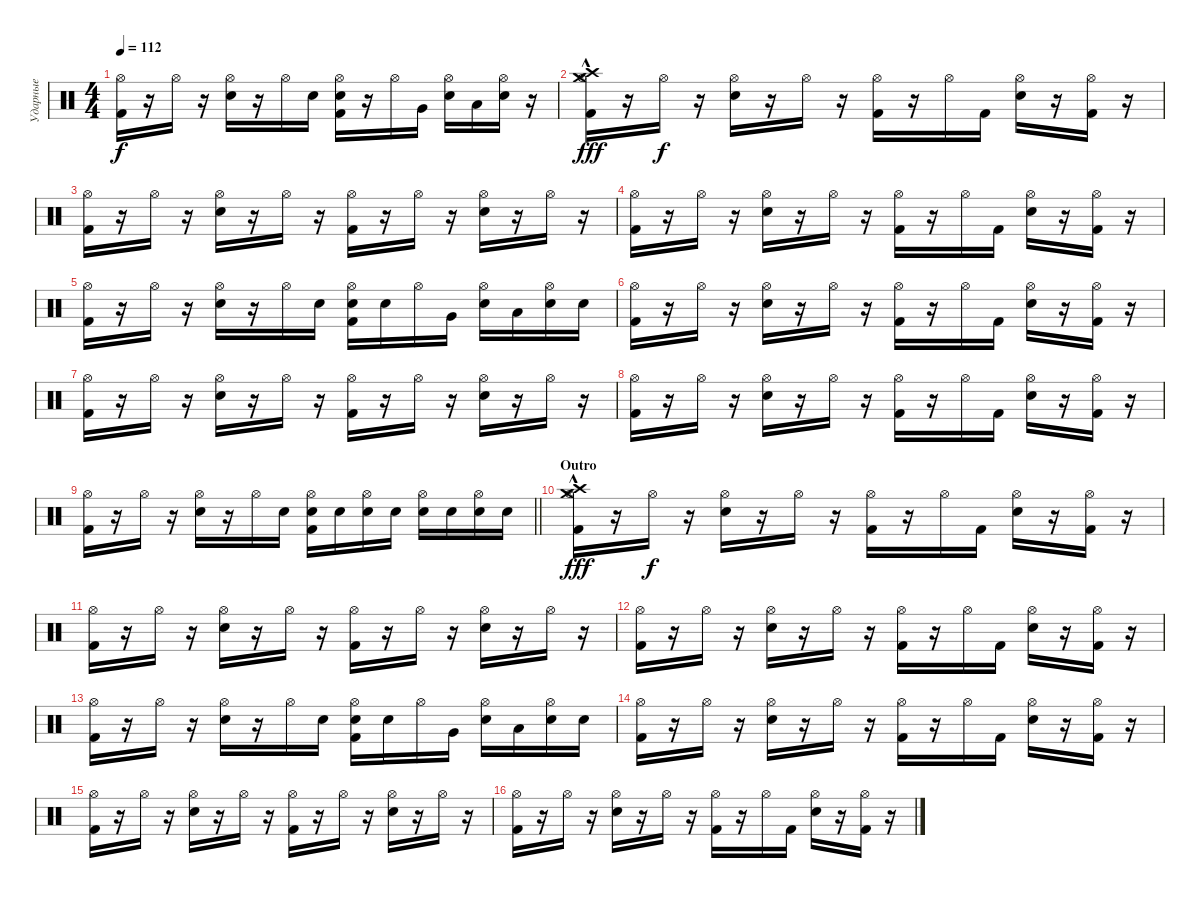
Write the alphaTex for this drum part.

\track ("Ударные" "Ударные") {instrument percussion}
\staff {score}
\articulation defaults
\ts (4 4)
\tempo 112
\clef neutral
\ks c
("Hi-Hat (open)" "Kick (hit) 2").16{dy f} r.16 "Hi-Hat (open)".16 r.16 ("Hi-Hat (open)" "Snare (hit) 2").16 r.16 "Hi-Hat (open)".16 "Snare (hit) 2".16 ("Hi-Hat (open)" "Electric Snare (hit)" "Kick (hit) 2").16 r.16 "Hi-Hat (open)".16 "Very Low Tom (hit)".16 ("Hi-Hat (open)" "Snare (hit) 2").16 "Low Floor Tom (hit)".16 ("Hi-Hat (open)" "Electric Snare (hit)").16 r.16 |
("Crash high (hit)"{hac} "Crash medium (hit)"{hac} "Hi-Hat (open)" "Kick (hit) 2").16{dy fff} r.16 "Hi-Hat (open)".16{dy f} r.16 ("Hi-Hat (open)" "Snare (hit) 2").16 r.16 "Hi-Hat (open)".16 r.16 ("Hi-Hat (open)" "Kick (hit) 2").16 r.16 "Hi-Hat (open)".16 "Kick (hit) 2".16 ("Hi-Hat (open)" "Snare (hit) 2").16 r.16 ("Hi-Hat (open)" "Kick (hit) 2").16 r.16 |
("Hi-Hat (open)" "Kick (hit) 2").16 r.16 "Hi-Hat (open)".16 r.16 ("Hi-Hat (open)" "Snare (hit) 2").16 r.16 "Hi-Hat (open)".16 r.16 ("Hi-Hat (open)" "Kick (hit) 2").16 r.16 "Hi-Hat (open)".16 r.16 ("Hi-Hat (open)" "Snare (hit) 2").16 r.16 "Hi-Hat (open)".16 r.16 |
("Hi-Hat (open)" "Kick (hit) 2").16 r.16 "Hi-Hat (open)".16 r.16 ("Hi-Hat (open)" "Snare (hit) 2").16 r.16 "Hi-Hat (open)".16 r.16 ("Hi-Hat (open)" "Kick (hit) 2").16 r.16 "Hi-Hat (open)".16 "Kick (hit) 2".16 ("Hi-Hat (open)" "Snare (hit) 2").16 r.16 ("Hi-Hat (open)" "Kick (hit) 2").16 r.16 |
("Hi-Hat (open)" "Kick (hit) 2").16 r.16 "Hi-Hat (open)".16 r.16 ("Hi-Hat (open)" "Snare (hit) 2").16 r.16 "Hi-Hat (open)".16 "Snare (hit) 2".16 ("Hi-Hat (open)" "Electric Snare (hit)" "Kick (hit) 2").16 "Snare (hit) 2".16 "Hi-Hat (open)".16 "Very Low Tom (hit)".16 ("Hi-Hat (open)" "Snare (hit) 2").16 "Low Floor Tom (hit)".16 ("Hi-Hat (open)" "Electric Snare (hit)").16 "Snare (hit) 2".16 |
("Hi-Hat (open)" "Kick (hit) 2").16 r.16 "Hi-Hat (open)".16 r.16 ("Hi-Hat (open)" "Snare (hit) 2").16 r.16 "Hi-Hat (open)".16 r.16 ("Hi-Hat (open)" "Kick (hit) 2").16 r.16 "Hi-Hat (open)".16 "Kick (hit) 2".16 ("Hi-Hat (open)" "Snare (hit) 2").16 r.16 ("Hi-Hat (open)" "Kick (hit) 2").16 r.16 |
("Hi-Hat (open)" "Kick (hit) 2").16 r.16 "Hi-Hat (open)".16 r.16 ("Hi-Hat (open)" "Snare (hit) 2").16 r.16 "Hi-Hat (open)".16 r.16 ("Hi-Hat (open)" "Kick (hit) 2").16 r.16 "Hi-Hat (open)".16 r.16 ("Hi-Hat (open)" "Snare (hit) 2").16 r.16 "Hi-Hat (open)".16 r.16 |
("Hi-Hat (open)" "Kick (hit) 2").16 r.16 "Hi-Hat (open)".16 r.16 ("Hi-Hat (open)" "Snare (hit) 2").16 r.16 "Hi-Hat (open)".16 r.16 ("Hi-Hat (open)" "Kick (hit) 2").16 r.16 "Hi-Hat (open)".16 "Kick (hit) 2".16 ("Hi-Hat (open)" "Snare (hit) 2").16 r.16 ("Hi-Hat (open)" "Kick (hit) 2").16 r.16 |
\barLineRight lightlight
("Hi-Hat (open)" "Kick (hit) 2").16 r.16 "Hi-Hat (open)".16 r.16 ("Hi-Hat (open)" "Snare (hit) 2").16 r.16 "Hi-Hat (open)".16 "Snare (hit) 2".16 ("Hi-Hat (open)" "Electric Snare (hit)" "Kick (hit) 2").16 "Snare (hit) 2".16 ("Hi-Hat (open)" "Snare (hit) 2").16 "Snare (hit) 2".16 ("Hi-Hat (open)" "Snare (hit) 2").16 "Snare (hit) 2".16 ("Hi-Hat (open)" "Electric Snare (hit)").16 "Snare (hit) 2".16 |
\section ("" "Outro")
("Crash high (hit)"{hac} "Crash medium (hit)"{hac} "Hi-Hat (open)" "Kick (hit) 2").16{dy fff} r.16 "Hi-Hat (open)".16{dy f} r.16 ("Hi-Hat (open)" "Snare (hit) 2").16 r.16 "Hi-Hat (open)".16 r.16 ("Hi-Hat (open)" "Kick (hit) 2").16 r.16 "Hi-Hat (open)".16 "Kick (hit) 2".16 ("Hi-Hat (open)" "Snare (hit) 2").16 r.16 ("Hi-Hat (open)" "Kick (hit) 2").16 r.16 |
("Hi-Hat (open)" "Kick (hit) 2").16 r.16 "Hi-Hat (open)".16 r.16 ("Hi-Hat (open)" "Snare (hit) 2").16 r.16 "Hi-Hat (open)".16 r.16 ("Hi-Hat (open)" "Kick (hit) 2").16 r.16 "Hi-Hat (open)".16 r.16 ("Hi-Hat (open)" "Snare (hit) 2").16 r.16 "Hi-Hat (open)".16 r.16 |
("Hi-Hat (open)" "Kick (hit) 2").16 r.16 "Hi-Hat (open)".16 r.16 ("Hi-Hat (open)" "Snare (hit) 2").16 r.16 "Hi-Hat (open)".16 r.16 ("Hi-Hat (open)" "Kick (hit) 2").16 r.16 "Hi-Hat (open)".16 "Kick (hit) 2".16 ("Hi-Hat (open)" "Snare (hit) 2").16 r.16 ("Hi-Hat (open)" "Kick (hit) 2").16 r.16 |
("Hi-Hat (open)" "Kick (hit) 2").16 r.16 "Hi-Hat (open)".16 r.16 ("Hi-Hat (open)" "Snare (hit) 2").16 r.16 "Hi-Hat (open)".16 "Snare (hit) 2".16 ("Hi-Hat (open)" "Electric Snare (hit)" "Kick (hit) 2").16 "Snare (hit) 2".16 "Hi-Hat (open)".16 "Very Low Tom (hit)".16 ("Hi-Hat (open)" "Snare (hit) 2").16 "Low Floor Tom (hit)".16 ("Hi-Hat (open)" "Electric Snare (hit)").16 "Snare (hit) 2".16 |
("Hi-Hat (open)" "Kick (hit) 2").16 r.16 "Hi-Hat (open)".16 r.16 ("Hi-Hat (open)" "Snare (hit) 2").16 r.16 "Hi-Hat (open)".16 r.16 ("Hi-Hat (open)" "Kick (hit) 2").16 r.16 "Hi-Hat (open)".16 "Kick (hit) 2".16 ("Hi-Hat (open)" "Snare (hit) 2").16 r.16 ("Hi-Hat (open)" "Kick (hit) 2").16 r.16 |
("Hi-Hat (open)" "Kick (hit) 2").16 r.16 "Hi-Hat (open)".16 r.16 ("Hi-Hat (open)" "Snare (hit) 2").16 r.16 "Hi-Hat (open)".16 r.16 ("Hi-Hat (open)" "Kick (hit) 2").16 r.16 "Hi-Hat (open)".16 r.16 ("Hi-Hat (open)" "Snare (hit) 2").16 r.16 "Hi-Hat (open)".16 r.16 |
("Hi-Hat (open)" "Kick (hit) 2").16 r.16 "Hi-Hat (open)".16 r.16 ("Hi-Hat (open)" "Snare (hit) 2").16 r.16 "Hi-Hat (open)".16 r.16 ("Hi-Hat (open)" "Kick (hit) 2").16 r.16 "Hi-Hat (open)".16 "Kick (hit) 2".16 ("Hi-Hat (open)" "Snare (hit) 2").16 r.16 ("Hi-Hat (open)" "Kick (hit) 2").16 r.16
